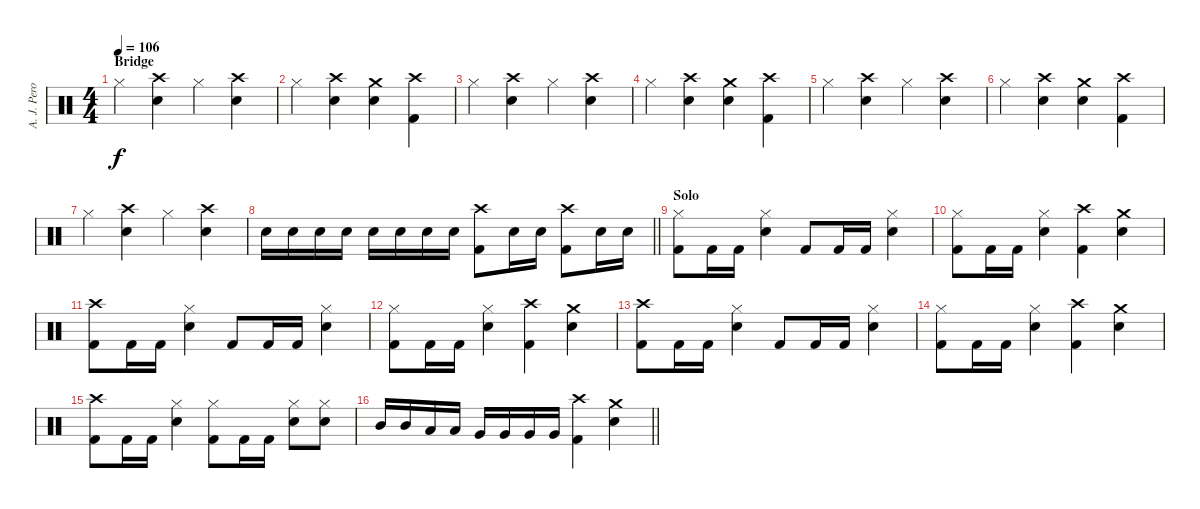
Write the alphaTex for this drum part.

\track ("A. J. Pero" "A. J. Pero") {instrument percussion}
\staff {score}
\articulation defaults
\ts (4 4)
\section ("" "Bridge")
\tempo 106
\clef neutral
\ks c "Hi-Hat (closed)".4{dy f}
("Crash high (hit)" "Snare (hit) 2").4 "Hi-Hat (closed)".4 ("Crash high (hit)" "Snare (hit) 2").4 |
"Hi-Hat (closed)".4 ("Crash high (hit)" "Snare (hit) 2").4 ("Crash medium (hit)" "Snare (hit) 2").4 ("Crash high (hit)" "Kick (hit) 2").4 |
"Hi-Hat (closed)".4 ("Crash high (hit)" "Snare (hit) 2").4 "Hi-Hat (closed)".4 ("Crash high (hit)" "Snare (hit) 2").4 |
"Hi-Hat (closed)".4 ("Crash high (hit)" "Snare (hit) 2").4 ("Crash medium (hit)" "Snare (hit) 2").4 ("Crash high (hit)" "Kick (hit) 2").4 |
"Hi-Hat (closed)".4 ("Crash high (hit)" "Snare (hit) 2").4 "Hi-Hat (closed)".4 ("Crash high (hit)" "Snare (hit) 2").4 |
"Hi-Hat (closed)".4 ("Crash high (hit)" "Snare (hit) 2").4 ("Crash medium (hit)" "Snare (hit) 2").4 ("Crash high (hit)" "Kick (hit) 2").4 |
"Hi-Hat (closed)".4 ("Crash high (hit)" "Snare (hit) 2").4 "Hi-Hat (closed)".4 ("Crash high (hit)" "Snare (hit) 2").4 |
\barLineRight lightlight "Snare (hit) 2".16 "Snare (hit) 2".16 "Snare (hit) 2".16 "Snare (hit) 2".16 "Snare (hit) 2".16 "Snare (hit) 2".16 "Snare (hit) 2".16 "Snare (hit) 2".16
("Crash high (hit)" "Kick (hit) 2").8 "Snare (hit) 2".16 "Snare (hit) 2".16 ("Crash high (hit)" "Kick (hit) 2").8 "Snare (hit) 2".16 "Snare (hit) 2".16 |
\section ("" "Solo")
("Hi-Hat (closed)" "Kick (hit) 2").8 "Kick (hit) 2".16 "Kick (hit) 2".16 ("Hi-Hat (closed)" "Snare (hit) 2").4 "Kick (hit) 2".8 "Kick (hit) 2".16 "Kick (hit) 2".16 ("Hi-Hat (closed)" "Snare (hit) 2").4 |
("Hi-Hat (closed)" "Kick (hit) 2").8 "Kick (hit) 2".16 "Kick (hit) 2".16 ("Hi-Hat (closed)" "Snare (hit) 2").4 ("Crash high (hit)" "Kick (hit) 2").4 ("Crash medium (hit)" "Snare (hit) 2").4 |
("Crash high (hit)" "Kick (hit) 2").8 "Kick (hit) 2".16 "Kick (hit) 2".16 ("Hi-Hat (closed)" "Snare (hit) 2").4 "Kick (hit) 2".8 "Kick (hit) 2".16 "Kick (hit) 2".16 ("Hi-Hat (closed)" "Snare (hit) 2").4 |
("Hi-Hat (closed)" "Kick (hit) 2").8 "Kick (hit) 2".16 "Kick (hit) 2".16 ("Hi-Hat (closed)" "Snare (hit) 2").4 ("Crash high (hit)" "Kick (hit) 2").4 ("Crash medium (hit)" "Snare (hit) 2").4 |
("Crash high (hit)" "Kick (hit) 2").8 "Kick (hit) 2".16 "Kick (hit) 2".16 ("Hi-Hat (closed)" "Snare (hit) 2").4 "Kick (hit) 2".8 "Kick (hit) 2".16 "Kick (hit) 2".16 ("Hi-Hat (closed)" "Snare (hit) 2").4 |
("Hi-Hat (closed)" "Kick (hit) 2").8 "Kick (hit) 2".16 "Kick (hit) 2".16 ("Hi-Hat (closed)" "Snare (hit) 2").4 ("Crash high (hit)" "Kick (hit) 2").4 ("Crash medium (hit)" "Snare (hit) 2").4 |
("Crash high (hit)" "Kick (hit) 2").8 "Kick (hit) 2".16 "Kick (hit) 2".16 ("Hi-Hat (closed)" "Snare (hit) 2").4 ("Hi-Hat (closed)" "Kick (hit) 2").8 "Kick (hit) 2".16 "Kick (hit) 2".16 ("Hi-Hat (closed)" "Snare (hit) 2").8 ("Hi-Hat (closed)" "Snare (hit) 2").8 |
\barLineRight lightlight "Mid Tom (hit)".16 "Mid Tom (hit)".16 "Low Tom (hit)".16 "Low Tom (hit)".16 "Very Low Tom (hit)".16 "Very Low Tom (hit)".16 "Very Low Tom (hit)".16 "Very Low Tom (hit)".16
("Crash high (hit)" "Kick (hit) 2").4 ("Crash medium (hit)" "Snare (hit) 2").4
